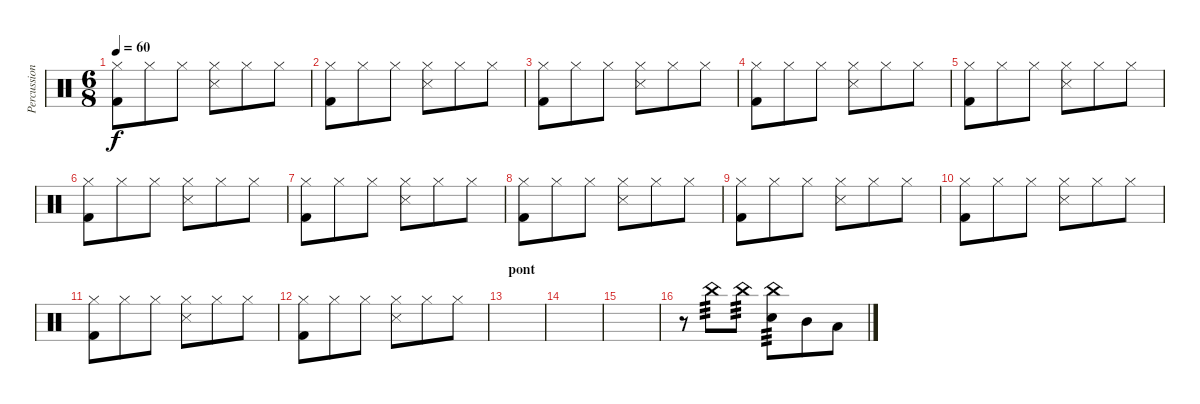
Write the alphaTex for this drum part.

\track ("Percussions" "Percussion") {instrument percussion}
\staff {score}
\articulation defaults
\ts (6 8)
\tempo 60
\clef neutral
\ks c
("Hi-Hat (closed)" "Kick (hit) 2").8{dy f} "Hi-Hat (closed)".8 "Hi-Hat (closed)".8 ("Hi-Hat (closed)" "Snare (side stick) 3").8 "Hi-Hat (closed)".8 "Hi-Hat (closed)".8 |
("Hi-Hat (closed)" "Kick (hit) 2").8 "Hi-Hat (closed)".8 "Hi-Hat (closed)".8 ("Hi-Hat (closed)" "Snare (side stick) 3").8 "Hi-Hat (closed)".8 "Hi-Hat (closed)".8 |
("Hi-Hat (closed)" "Kick (hit) 2").8 "Hi-Hat (closed)".8 "Hi-Hat (closed)".8 ("Hi-Hat (closed)" "Snare (side stick) 3").8 "Hi-Hat (closed)".8 "Hi-Hat (closed)".8 |
("Hi-Hat (closed)" "Kick (hit) 2").8 "Hi-Hat (closed)".8 "Hi-Hat (closed)".8 ("Hi-Hat (closed)" "Snare (side stick) 3").8 "Hi-Hat (closed)".8 "Hi-Hat (closed)".8 |
("Hi-Hat (closed)" "Kick (hit) 2").8 "Hi-Hat (closed)".8 "Hi-Hat (closed)".8 ("Hi-Hat (closed)" "Snare (side stick) 3").8 "Hi-Hat (closed)".8 "Hi-Hat (closed)".8 |
("Hi-Hat (closed)" "Kick (hit) 2").8 "Hi-Hat (closed)".8 "Hi-Hat (closed)".8 ("Hi-Hat (closed)" "Snare (side stick) 3").8 "Hi-Hat (closed)".8 "Hi-Hat (closed)".8 |
("Hi-Hat (closed)" "Kick (hit) 2").8 "Hi-Hat (closed)".8 "Hi-Hat (closed)".8 ("Hi-Hat (closed)" "Snare (side stick) 3").8 "Hi-Hat (closed)".8 "Hi-Hat (closed)".8 |
("Hi-Hat (closed)" "Kick (hit) 2").8 "Hi-Hat (closed)".8 "Hi-Hat (closed)".8 ("Hi-Hat (closed)" "Snare (side stick) 3").8 "Hi-Hat (closed)".8 "Hi-Hat (closed)".8 |
("Hi-Hat (closed)" "Kick (hit) 2").8 "Hi-Hat (closed)".8 "Hi-Hat (closed)".8 ("Hi-Hat (closed)" "Snare (side stick) 3").8 "Hi-Hat (closed)".8 "Hi-Hat (closed)".8 |
("Hi-Hat (closed)" "Kick (hit) 2").8 "Hi-Hat (closed)".8 "Hi-Hat (closed)".8 ("Hi-Hat (closed)" "Snare (side stick) 3").8 "Hi-Hat (closed)".8 "Hi-Hat (closed)".8 |
("Hi-Hat (closed)" "Kick (hit) 2").8 "Hi-Hat (closed)".8 "Hi-Hat (closed)".8 ("Hi-Hat (closed)" "Snare (side stick) 3").8 "Hi-Hat (closed)".8 "Hi-Hat (closed)".8 |
("Hi-Hat (closed)" "Kick (hit) 2").8 "Hi-Hat (closed)".8 "Hi-Hat (closed)".8 ("Hi-Hat (closed)" "Snare (side stick) 3").8 "Hi-Hat (closed)".8 "Hi-Hat (closed)".8 |
\section ("" "pont")
|
|
|
r.8 "China (hit)".8{tp 3} "China (hit)".8{tp 3} ("China (hit)" "Electric Snare (hit)").8{tp 3} "Mid Tom (hit)".8 "Low Tom (hit)".8
